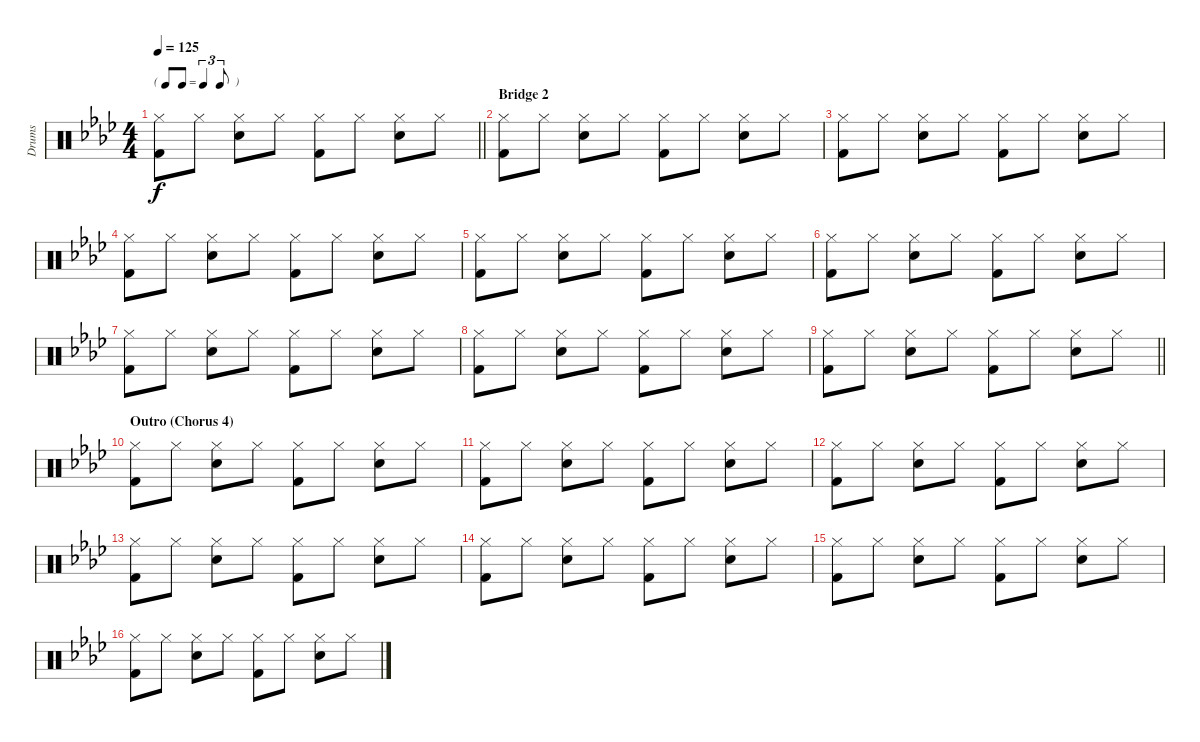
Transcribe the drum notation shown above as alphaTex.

\track ("Drums" "Drums") {instrument percussion}
\staff {score}
\articulation defaults
\ts (4 4)
\tf triplet8th
\tempo 125
\clef neutral
\barLineRight lightlight
\ks ab
("Hi-Hat (closed)" "Kick (hit) 2").8{dy f} "Hi-Hat (closed)".8 ("Hi-Hat (closed)" "Electric Snare (hit)").8 "Hi-Hat (closed)".8 ("Hi-Hat (closed)" "Kick (hit) 2").8 "Hi-Hat (closed)".8 ("Hi-Hat (closed)" "Electric Snare (hit)").8 "Hi-Hat (closed)".8 |
\section ("" "Bridge 2")
("Hi-Hat (closed)" "Kick (hit) 2").8 "Hi-Hat (closed)".8 ("Hi-Hat (closed)" "Electric Snare (hit)").8 "Hi-Hat (closed)".8 ("Hi-Hat (closed)" "Kick (hit) 2").8 "Hi-Hat (closed)".8 ("Hi-Hat (closed)" "Electric Snare (hit)").8 "Hi-Hat (closed)".8 |
("Hi-Hat (closed)" "Kick (hit) 2").8 "Hi-Hat (closed)".8 ("Hi-Hat (closed)" "Electric Snare (hit)").8 "Hi-Hat (closed)".8 ("Hi-Hat (closed)" "Kick (hit) 2").8 "Hi-Hat (closed)".8 ("Hi-Hat (closed)" "Electric Snare (hit)").8 "Hi-Hat (closed)".8 |
("Hi-Hat (closed)" "Kick (hit) 2").8 "Hi-Hat (closed)".8 ("Hi-Hat (closed)" "Electric Snare (hit)").8 "Hi-Hat (closed)".8 ("Hi-Hat (closed)" "Kick (hit) 2").8 "Hi-Hat (closed)".8 ("Hi-Hat (closed)" "Electric Snare (hit)").8 "Hi-Hat (closed)".8 |
("Hi-Hat (closed)" "Kick (hit) 2").8 "Hi-Hat (closed)".8 ("Hi-Hat (closed)" "Electric Snare (hit)").8 "Hi-Hat (closed)".8 ("Hi-Hat (closed)" "Kick (hit) 2").8 "Hi-Hat (closed)".8 ("Hi-Hat (closed)" "Electric Snare (hit)").8 "Hi-Hat (closed)".8 |
("Hi-Hat (closed)" "Kick (hit) 2").8 "Hi-Hat (closed)".8 ("Hi-Hat (closed)" "Electric Snare (hit)").8 "Hi-Hat (closed)".8 ("Hi-Hat (closed)" "Kick (hit) 2").8 "Hi-Hat (closed)".8 ("Hi-Hat (closed)" "Electric Snare (hit)").8 "Hi-Hat (closed)".8 |
("Hi-Hat (closed)" "Kick (hit) 2").8 "Hi-Hat (closed)".8 ("Hi-Hat (closed)" "Electric Snare (hit)").8 "Hi-Hat (closed)".8 ("Hi-Hat (closed)" "Kick (hit) 2").8 "Hi-Hat (closed)".8 ("Hi-Hat (closed)" "Electric Snare (hit)").8 "Hi-Hat (closed)".8 |
("Hi-Hat (closed)" "Kick (hit) 2").8 "Hi-Hat (closed)".8 ("Hi-Hat (closed)" "Electric Snare (hit)").8 "Hi-Hat (closed)".8 ("Hi-Hat (closed)" "Kick (hit) 2").8 "Hi-Hat (closed)".8 ("Hi-Hat (closed)" "Electric Snare (hit)").8 "Hi-Hat (closed)".8 |
\barLineRight lightlight
("Hi-Hat (closed)" "Kick (hit) 2").8 "Hi-Hat (closed)".8 ("Hi-Hat (closed)" "Electric Snare (hit)").8 "Hi-Hat (closed)".8 ("Hi-Hat (closed)" "Kick (hit) 2").8 "Hi-Hat (closed)".8 ("Hi-Hat (closed)" "Electric Snare (hit)").8 "Hi-Hat (closed)".8 |
\section ("" "Outro (Chorus 4)")
("Hi-Hat (closed)" "Kick (hit) 2").8 "Hi-Hat (closed)".8 ("Hi-Hat (closed)" "Electric Snare (hit)").8 "Hi-Hat (closed)".8 ("Hi-Hat (closed)" "Kick (hit) 2").8 "Hi-Hat (closed)".8 ("Hi-Hat (closed)" "Electric Snare (hit)").8 "Hi-Hat (closed)".8 |
("Hi-Hat (closed)" "Kick (hit) 2").8 "Hi-Hat (closed)".8 ("Hi-Hat (closed)" "Electric Snare (hit)").8 "Hi-Hat (closed)".8 ("Hi-Hat (closed)" "Kick (hit) 2").8 "Hi-Hat (closed)".8 ("Hi-Hat (closed)" "Electric Snare (hit)").8 "Hi-Hat (closed)".8 |
("Hi-Hat (closed)" "Kick (hit) 2").8 "Hi-Hat (closed)".8 ("Hi-Hat (closed)" "Electric Snare (hit)").8 "Hi-Hat (closed)".8 ("Hi-Hat (closed)" "Kick (hit) 2").8 "Hi-Hat (closed)".8 ("Hi-Hat (closed)" "Electric Snare (hit)").8 "Hi-Hat (closed)".8 |
("Hi-Hat (closed)" "Kick (hit) 2").8 "Hi-Hat (closed)".8 ("Hi-Hat (closed)" "Electric Snare (hit)").8 "Hi-Hat (closed)".8 ("Hi-Hat (closed)" "Kick (hit) 2").8 "Hi-Hat (closed)".8 ("Hi-Hat (closed)" "Electric Snare (hit)").8 "Hi-Hat (closed)".8 |
("Hi-Hat (closed)" "Kick (hit) 2").8 "Hi-Hat (closed)".8 ("Hi-Hat (closed)" "Electric Snare (hit)").8 "Hi-Hat (closed)".8 ("Hi-Hat (closed)" "Kick (hit) 2").8 "Hi-Hat (closed)".8 ("Hi-Hat (closed)" "Electric Snare (hit)").8 "Hi-Hat (closed)".8 |
("Hi-Hat (closed)" "Kick (hit) 2").8 "Hi-Hat (closed)".8 ("Hi-Hat (closed)" "Electric Snare (hit)").8 "Hi-Hat (closed)".8 ("Hi-Hat (closed)" "Kick (hit) 2").8 "Hi-Hat (closed)".8 ("Hi-Hat (closed)" "Electric Snare (hit)").8 "Hi-Hat (closed)".8 |
("Hi-Hat (closed)" "Kick (hit) 2").8 "Hi-Hat (closed)".8 ("Hi-Hat (closed)" "Electric Snare (hit)").8 "Hi-Hat (closed)".8 ("Hi-Hat (closed)" "Kick (hit) 2").8 "Hi-Hat (closed)".8 ("Hi-Hat (closed)" "Electric Snare (hit)").8 "Hi-Hat (closed)".8
